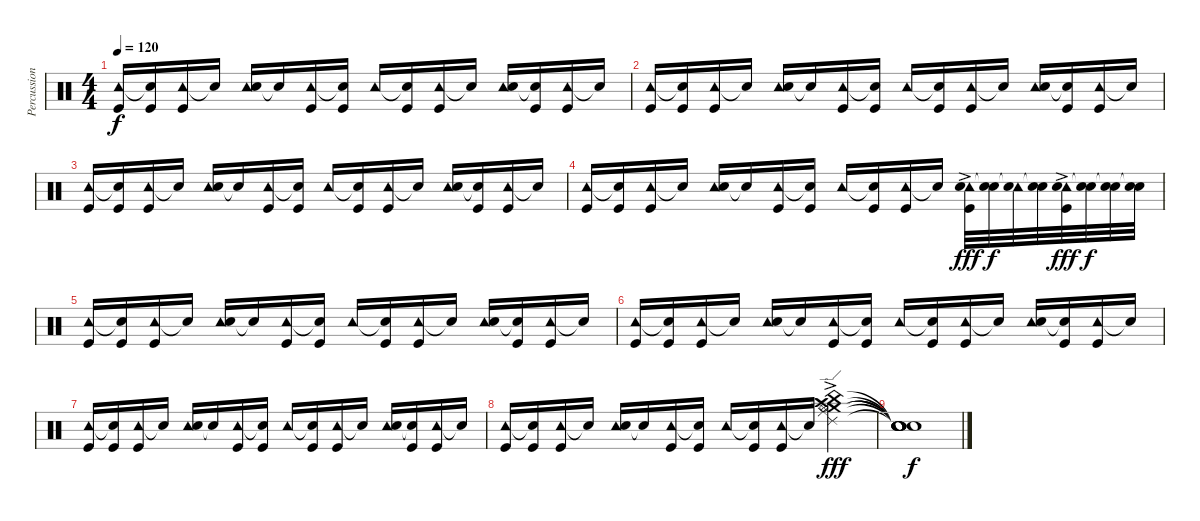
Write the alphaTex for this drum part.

\track ("Percussion" "Percussion") {instrument percussion}
\staff {score}
\articulation defaults
\ts (4 4)
\tempo 120
\clef neutral
\ks c
("Tambourine (hit)" "Kick (hit)").16{dy f} ("Snare (hit)"{t} "Kick (hit)").16 ("Tambourine (hit)" "Kick (hit)").16 "Snare (hit)"{t}.16 ("Tambourine (hit)" "Electric Snare (hit)").16 "Snare (hit)"{t}.16 ("Tambourine (hit)" "Kick (hit)").16 ("Snare (hit)"{t} "Kick (hit)").16 "Tambourine (hit)".16 ("Snare (hit)"{t} "Kick (hit)").16 ("Tambourine (hit)" "Kick (hit)").16 "Snare (hit)"{t}.16 ("Tambourine (hit)" "Electric Snare (hit)").16 ("Snare (hit)"{t} "Kick (hit)").16 ("Tambourine (hit)" "Kick (hit)").16 "Snare (hit)"{t}.16 |
("Tambourine (hit)" "Kick (hit)").16 ("Snare (hit)"{t} "Kick (hit)").16 ("Tambourine (hit)" "Kick (hit)").16 "Snare (hit)"{t}.16 ("Tambourine (hit)" "Electric Snare (hit)").16 "Snare (hit)"{t}.16 ("Tambourine (hit)" "Kick (hit)").16 ("Snare (hit)"{t} "Kick (hit)").16 "Tambourine (hit)".16 ("Snare (hit)"{t} "Kick (hit)").16 ("Tambourine (hit)" "Kick (hit)").16 "Snare (hit)"{t}.16 ("Tambourine (hit)" "Electric Snare (hit)").16 ("Snare (hit)"{t} "Kick (hit)").16 ("Tambourine (hit)" "Kick (hit)").16 "Snare (hit)"{t}.16 |
("Tambourine (hit)" "Kick (hit)").16 ("Snare (hit)"{t} "Kick (hit)").16 ("Tambourine (hit)" "Kick (hit)").16 "Snare (hit)"{t}.16 ("Tambourine (hit)" "Electric Snare (hit)").16 "Snare (hit)"{t}.16 ("Tambourine (hit)" "Kick (hit)").16 ("Snare (hit)"{t} "Kick (hit)").16 "Tambourine (hit)".16 ("Snare (hit)"{t} "Kick (hit)").16 ("Tambourine (hit)" "Kick (hit)").16 "Snare (hit)"{t}.16 ("Tambourine (hit)" "Electric Snare (hit)").16 ("Snare (hit)"{t} "Kick (hit)").16 ("Tambourine (hit)" "Kick (hit)").16 "Snare (hit)"{t}.16 |
("Tambourine (hit)" "Kick (hit)").16 ("Snare (hit)"{t} "Kick (hit)").16 ("Tambourine (hit)" "Kick (hit)").16 "Snare (hit)"{t}.16 ("Tambourine (hit)" "Electric Snare (hit)").16 "Snare (hit)"{t}.16 ("Tambourine (hit)" "Kick (hit)").16 ("Snare (hit)"{t} "Kick (hit)").16 "Tambourine (hit)".16 ("Snare (hit)"{t} "Kick (hit)").16 ("Tambourine (hit)" "Kick (hit)").16 "Snare (hit)"{t}.16 ("Tambourine (hit)" "Electric Snare (hit)"{ac} "Kick (hit)").32{dy fff} ("Snare (hit)"{t} "Electric Snare (hit)").32{dy f} ("Tambourine (hit)"{t} "Electric Snare (hit)").32 ("Snare (hit)"{t} "Electric Snare (hit)").32 ("Tambourine (hit)" "Electric Snare (hit)"{ac} "Kick (hit)").32{dy fff} ("Snare (hit)"{t} "Electric Snare (hit)").32{dy f} ("Snare (hit)"{t} "Electric Snare (hit)").32 ("Snare (hit)"{t} "Electric Snare (hit)").32 |
("Tambourine (hit)" "Kick (hit)").16 ("Snare (hit)"{t} "Kick (hit)").16 ("Tambourine (hit)" "Kick (hit)").16 "Snare (hit)"{t}.16 ("Tambourine (hit)" "Electric Snare (hit)").16 "Snare (hit)"{t}.16 ("Tambourine (hit)" "Kick (hit)").16 ("Snare (hit)"{t} "Kick (hit)").16 "Tambourine (hit)".16 ("Snare (hit)"{t} "Kick (hit)").16 ("Tambourine (hit)" "Kick (hit)").16 "Snare (hit)"{t}.16 ("Tambourine (hit)" "Electric Snare (hit)").16 ("Snare (hit)"{t} "Kick (hit)").16 ("Tambourine (hit)" "Kick (hit)").16 "Snare (hit)"{t}.16 |
("Tambourine (hit)" "Kick (hit)").16 ("Snare (hit)"{t} "Kick (hit)").16 ("Tambourine (hit)" "Kick (hit)").16 "Snare (hit)"{t}.16 ("Tambourine (hit)" "Electric Snare (hit)").16 "Snare (hit)"{t}.16 ("Tambourine (hit)" "Kick (hit)").16 ("Snare (hit)"{t} "Kick (hit)").16 "Tambourine (hit)".16 ("Snare (hit)"{t} "Kick (hit)").16 ("Tambourine (hit)" "Kick (hit)").16 "Snare (hit)"{t}.16 ("Tambourine (hit)" "Electric Snare (hit)").16 ("Snare (hit)"{t} "Kick (hit)").16 ("Tambourine (hit)" "Kick (hit)").16 "Snare (hit)"{t}.16 |
("Tambourine (hit)" "Kick (hit)").16 ("Snare (hit)"{t} "Kick (hit)").16 ("Tambourine (hit)" "Kick (hit)").16 "Snare (hit)"{t}.16 ("Tambourine (hit)" "Electric Snare (hit)").16 "Snare (hit)"{t}.16 ("Tambourine (hit)" "Kick (hit)").16 ("Snare (hit)"{t} "Kick (hit)").16 "Tambourine (hit)".16 ("Snare (hit)"{t} "Kick (hit)").16 ("Tambourine (hit)" "Kick (hit)").16 "Snare (hit)"{t}.16 ("Tambourine (hit)" "Electric Snare (hit)").16 ("Snare (hit)"{t} "Kick (hit)").16 ("Tambourine (hit)" "Kick (hit)").16 "Snare (hit)"{t}.16 |
("Tambourine (hit)" "Kick (hit)").16 ("Snare (hit)"{t} "Kick (hit)").16 ("Tambourine (hit)" "Kick (hit)").16 "Snare (hit)"{t}.16 ("Tambourine (hit)" "Electric Snare (hit)").16 "Snare (hit)"{t}.16 ("Tambourine (hit)" "Kick (hit)").16 ("Snare (hit)"{t} "Kick (hit)").16 "Tambourine (hit)".16 ("Snare (hit)"{t} "Kick (hit)").16 ("Tambourine (hit)" "Kick (hit)").16 "Snare (hit)"{t}.16 ("Crash high (hit)"{ac} "Crash medium (hit)"{ac} "Hi-Hat (open)"{ac} "Ride (edge) 2"{ac} "Ride (middle)"{ac} "China (hit)"{ac}).4{dy fff} |
("Snare (hit)"{t} "Snare (hit)"{t} "Snare (hit)"{t} "Snare (hit)"{t} "Snare (hit)"{t} "Snare (hit)"{t}).1{dy f volume 0}
